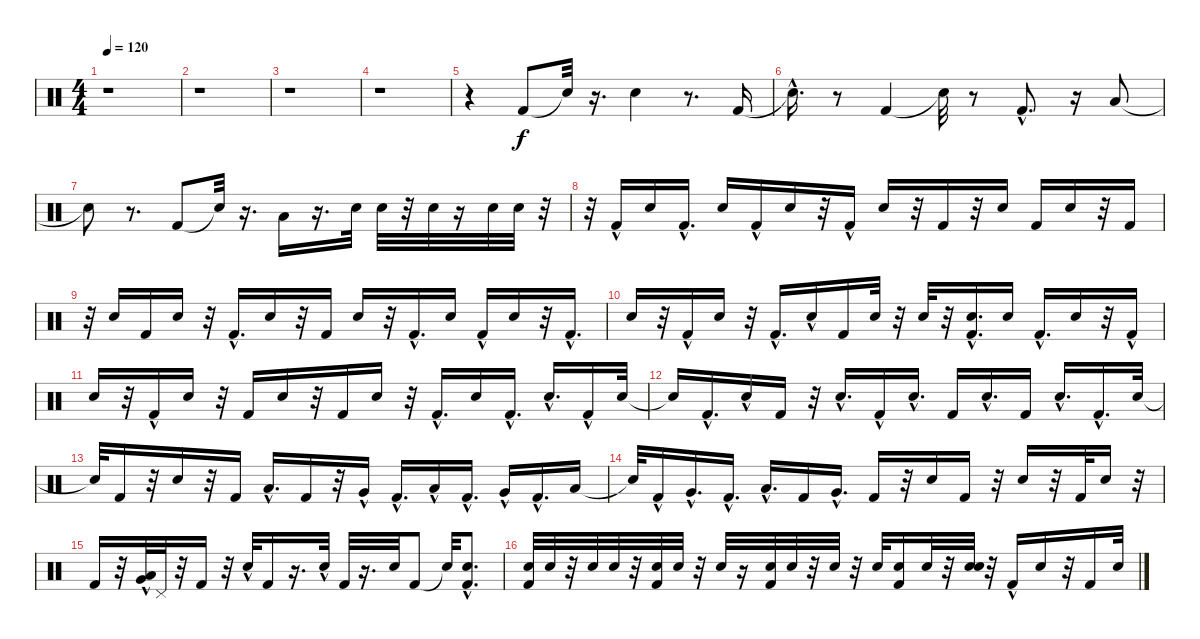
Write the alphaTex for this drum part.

\track "" {instrument percussion}
\staff {score}
\articulation defaults
\ts (4 4)
\tempo 120
\clef neutral
\ks c
r.1{dy f} |
r.1 |
r.1 |
r.1 |
r.4 "Kick (hit) 2".8 "Snare (hit)"{t}.32 r.16{d} "Snare (hit) 2".4 r.8{d} "Kick (hit) 2".16 |
"Snare (hit)"{hac t}.16{d} r.8 "Kick (hit) 2".4 "Snare (hit)"{t}.32 r.8 "Kick (hit) 2"{hac}.8{d} r.16 "Low Floor Tom (hit)".8 |
"Snare (hit)"{t}.8 r.8{d} "Kick (hit) 2".8 "Snare (hit)"{t}.32 r.16{d} "Low Tom (hit)".16 r.16{d} "Electric Snare (hit)".32 "Snare (hit) 2".32 r.32 "Electric Snare (hit)".32 r.16 "Electric Snare (hit)".32 "Snare (hit) 2".32 r.32 |
r.32 "Kick (hit) 2"{hac}.16 "Snare (hit) 2".16 "Kick (hit) 2"{hac}.16{d} "Snare (hit) 2".16 "Kick (hit) 2"{hac}.16 "Snare (hit) 2".16 r.32 "Kick (hit) 2"{hac}.16 "Snare (hit) 2".16 r.32 "Kick (hit) 2".16 r.32 "Snare (hit) 2".16 "Kick (hit) 2".16 "Snare (hit) 2".16 r.32 "Kick (hit) 2".16 |
r.32 "Snare (hit) 2".16 "Kick (hit) 2".16 "Snare (hit) 2".16 r.32 "Kick (hit) 2"{hac}.16{d} "Snare (hit) 2".16 r.32 "Kick (hit) 2".16 "Snare (hit) 2".16 r.32 "Kick (hit) 2"{hac}.16{d} "Snare (hit) 2".16 "Kick (hit) 2"{hac}.16 "Snare (hit) 2".16 r.32 "Kick (hit) 2"{hac}.16{d} |
"Snare (hit) 2".16 r.32 "Kick (hit) 2"{hac}.16 "Snare (hit) 2".16 r.32 "Kick (hit) 2"{hac}.16{d} "Snare (hit) 2"{hac}.16 "Kick (hit) 2".16 "Electric Snare (hit)".32 r.32 "Snare (hit) 2".32 r.32 ("Electric Snare (hit)" "Kick (hit) 2"{hac}).16{d} "Electric Snare (hit)".16 "Kick (hit) 2"{hac}.16{d} "Electric Snare (hit)".16 r.32 "Kick (hit) 2"{hac}.16 |
"Electric Snare (hit)".16 r.32 "Kick (hit) 2"{hac}.16 "Electric Snare (hit)".16 r.32 "Kick (hit) 2".16 "Electric Snare (hit)".16 r.32 "Kick (hit) 2".16 "Electric Snare (hit)".16 r.32 "Kick (hit) 2"{hac}.16{d} "Electric Snare (hit)".16 "Kick (hit) 2"{hac}.16{d} "Electric Snare (hit)"{hac}.16{d} "Kick (hit) 2"{hac}.16 "Snare (hit) 2".32 |
"Snare (hit)"{t}.16 "Kick (hit) 2"{hac}.16{d} "Snare (hit) 2"{hac}.16 "Kick (hit) 2".16 r.32 "Snare (hit) 2"{hac}.16{d} "Kick (hit) 2"{hac}.16 "Snare (hit) 2"{hac}.16{d} "Kick (hit) 2".16 "Snare (hit) 2"{hac}.16{d} "Kick (hit) 2".16 "Electric Snare (hit)"{hac}.16{d} "Kick (hit) 2"{hac}.16{d} "Electric Snare (hit)".32 |
"Snare (hit)"{t}.32 "Kick (hit) 2".16 r.32 "Electric Snare (hit)".16 r.32 "Kick (hit) 2".16 "Low Tom (hit)"{hac}.16{d} "Kick (hit) 2".16 r.32 "Very Low Tom (hit)"{hac}.16 "Kick (hit) 2"{hac}.16{d} "Low Floor Tom (hit)"{hac}.16 "Kick (hit) 2"{hac}.16{d} "Very Low Tom (hit)"{hac}.16 "Kick (hit) 2"{hac}.16{d} "Low Tom (hit)".16 |
"Snare (hit)"{t}.32 "Kick (hit) 2"{hac}.16 "Very Low Tom (hit)"{hac}.16{d} "Kick (hit) 2"{hac}.16{d} "Low Floor Tom (hit)"{hac}.16{d} "Kick (hit) 2".16 "Very Low Tom (hit)"{hac}.16{d} "Kick (hit) 2".16 r.32 "Electric Snare (hit)".16 "Kick (hit) 2".16 r.32 "Snare (hit) 2".16 r.32 "Kick (hit) 2".32 "Electric Snare (hit)".16 r.32 |
"Kick (hit) 2".16 r.32 ("Very Low Tom (hit)"{hac} "Low Tom (hit)").32 "Pedal Hi-Hat (hit)".32 r.32 "Kick (hit) 2".16 r.32 "Electric Snare (hit)"{hac}.32 "Kick (hit) 2".16 r.16{d} "Electric Snare (hit)"{hac}.32 "Kick (hit) 2".32 r.16{d} "Electric Snare (hit)".32 "Kick (hit) 2".8 "Snare (hit)"{t}.32 ("Electric Snare (hit)" "Kick (hit) 2"{hac}).8{d} |
("Electric Snare (hit)" "Kick (hit) 2").32 "Snare (hit) 2".32 r.32 "Electric Snare (hit)".32 "Snare (hit) 2".32 r.32 ("Electric Snare (hit)" "Kick (hit) 2").32 "Snare (hit) 2".32 r.32 "Electric Snare (hit)".32 r.16 ("Electric Snare (hit)" "Kick (hit) 2").32 "Snare (hit) 2".32 r.32 "Electric Snare (hit)".32 r.32 "Snare (hit) 2".32 ("Kick (hit) 2" "Electric Snare (hit)").16 "Snare (hit) 2".32 r.32 ("Electric Snare (hit)" "Snare (hit) 2").32 r.32 "Kick (hit) 2"{hac}.16 "Snare (hit) 2".16 r.32 "Kick (hit) 2".16 "Snare (hit) 2".32
